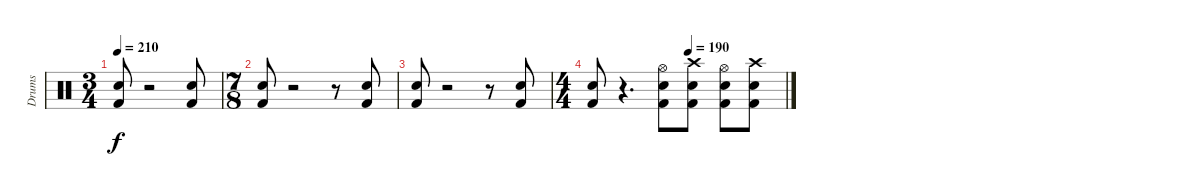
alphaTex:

\track ("Drums" "Drums") {instrument percussion}
\staff {score}
\articulation defaults
\ts (3 4)
\tempo 210
\clef neutral
\ks c
("Snare (hit) 2" "Kick (hit) 2").8{dy f} r.2 ("Snare (hit) 2" "Kick (hit) 2").8 |
\ts (7 8)
("Snare (hit) 2" "Kick (hit) 2").8 r.2 r.8 ("Snare (hit) 2" "Kick (hit) 2").8 |
("Snare (hit) 2" "Kick (hit) 2").8 r.2 r.8 ("Snare (hit) 2" "Kick (hit) 2").8 |
\ts (4 4)
\tempo (190 0.5)
("Snare (hit) 2" "Kick (hit) 2").8 r.4{d} ("Hi-Hat (open)" "Snare (hit) 2" "Kick (hit) 2").8 ("Crash high (hit)" "Snare (hit) 2" "Kick (hit) 2").8 ("Hi-Hat (open)" "Snare (hit) 2" "Kick (hit) 2").8 ("Crash high (hit)" "Snare (hit) 2" "Kick (hit) 2").8
